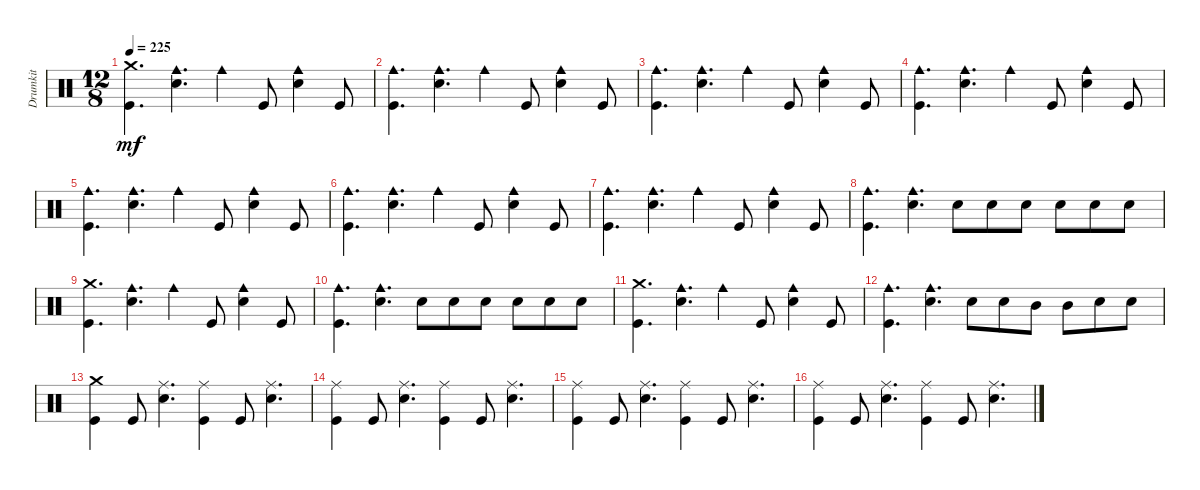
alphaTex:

\track ("Drumkit" "Drumkit") {instrument percussion}
\staff {score}
\articulation defaults
\ts (12 8)
\tempo 225
\clef neutral
\ks c
("Kick (hit)" "Crash medium (hit)").4{d dy mf} ("Snare (hit) 2" "Cowbell medium (hit)").4{d} "Cowbell medium (hit)".4 "Kick (hit)".8 ("Cowbell medium (hit)" "Snare (hit) 2").4 "Kick (hit)".8 |
("Cowbell medium (hit)" "Kick (hit)").4{d} ("Cowbell medium (hit)" "Snare (hit) 2").4{d} "Cowbell medium (hit)".4 "Kick (hit)".8 ("Cowbell medium (hit)" "Snare (hit) 2").4 "Kick (hit)".8 |
("Kick (hit)" "Cowbell medium (hit)").4{d} ("Snare (hit) 2" "Cowbell medium (hit)").4{d} "Cowbell medium (hit)".4 "Kick (hit)".8 ("Cowbell medium (hit)" "Snare (hit) 2").4 "Kick (hit)".8 |
("Cowbell medium (hit)" "Kick (hit)").4{d} ("Cowbell medium (hit)" "Snare (hit) 2").4{d} "Cowbell medium (hit)".4 "Kick (hit)".8 ("Cowbell medium (hit)" "Snare (hit) 2").4 "Kick (hit)".8 |
("Kick (hit)" "Cowbell medium (hit)").4{d} ("Snare (hit) 2" "Cowbell medium (hit)").4{d} "Cowbell medium (hit)".4 "Kick (hit)".8 ("Cowbell medium (hit)" "Snare (hit) 2").4 "Kick (hit)".8 |
("Cowbell medium (hit)" "Kick (hit)").4{d} ("Cowbell medium (hit)" "Snare (hit) 2").4{d} "Cowbell medium (hit)".4 "Kick (hit)".8 ("Cowbell medium (hit)" "Snare (hit) 2").4 "Kick (hit)".8 |
("Kick (hit)" "Cowbell medium (hit)").4{d} ("Snare (hit) 2" "Cowbell medium (hit)").4{d} "Cowbell medium (hit)".4 "Kick (hit)".8 ("Cowbell medium (hit)" "Snare (hit) 2").4 "Kick (hit)".8 |
("Cowbell medium (hit)" "Kick (hit)").4{d} ("Cowbell medium (hit)" "Snare (hit) 2").4{d} "Snare (hit) 2".8 "Snare (hit) 2".8 "Snare (hit) 2".8 "Snare (hit) 2".8 "Snare (hit) 2".8 "Snare (hit) 2".8 |
("Kick (hit)" "Crash medium (hit)").4{d} ("Snare (hit) 2" "Cowbell medium (hit)").4{d} "Cowbell medium (hit)".4 "Kick (hit)".8 ("Cowbell medium (hit)" "Snare (hit) 2").4 "Kick (hit)".8 |
("Cowbell medium (hit)" "Kick (hit)").4{d} ("Cowbell medium (hit)" "Snare (hit) 2").4{d} "Snare (hit) 2".8 "Snare (hit) 2".8 "Snare (hit) 2".8 "Snare (hit) 2".8 "Snare (hit) 2".8 "Snare (hit) 2".8 |
("Kick (hit)" "Crash medium (hit)").4{d} ("Snare (hit) 2" "Cowbell medium (hit)").4{d} "Cowbell medium (hit)".4 "Kick (hit)".8 ("Cowbell medium (hit)" "Snare (hit) 2").4 "Kick (hit)".8 |
("Cowbell medium (hit)" "Kick (hit)").4{d} ("Cowbell medium (hit)" "Snare (hit) 2").4{d} "Snare (hit) 2".8 "Snare (hit) 2".8 "Mid Tom (hit)".8 "Mid Tom (hit)".8 "Snare (hit) 2".8 "Snare (hit) 2".8 |
("Kick (hit)" "Crash medium (hit)").4 "Kick (hit)".8 ("Snare (hit) 2" "Ride (middle)").4{d} ("Kick (hit)" "Ride (middle)").4 "Kick (hit)".8 ("Snare (hit) 2" "Ride (middle)").4{d} |
("Kick (hit)" "Ride (middle)").4 "Kick (hit)".8 ("Snare (hit) 2" "Ride (middle)").4{d} ("Kick (hit)" "Ride (middle)").4 "Kick (hit)".8 ("Snare (hit) 2" "Ride (middle)").4{d} |
("Kick (hit)" "Ride (middle)").4 "Kick (hit)".8 ("Snare (hit) 2" "Ride (middle)").4{d} ("Kick (hit)" "Ride (middle)").4 "Kick (hit)".8 ("Snare (hit) 2" "Ride (middle)").4{d} |
("Kick (hit)" "Ride (middle)").4 "Kick (hit)".8 ("Snare (hit) 2" "Ride (middle)").4{d} ("Kick (hit)" "Ride (middle)").4 "Kick (hit)".8 ("Snare (hit) 2" "Ride (middle)").4{d}
